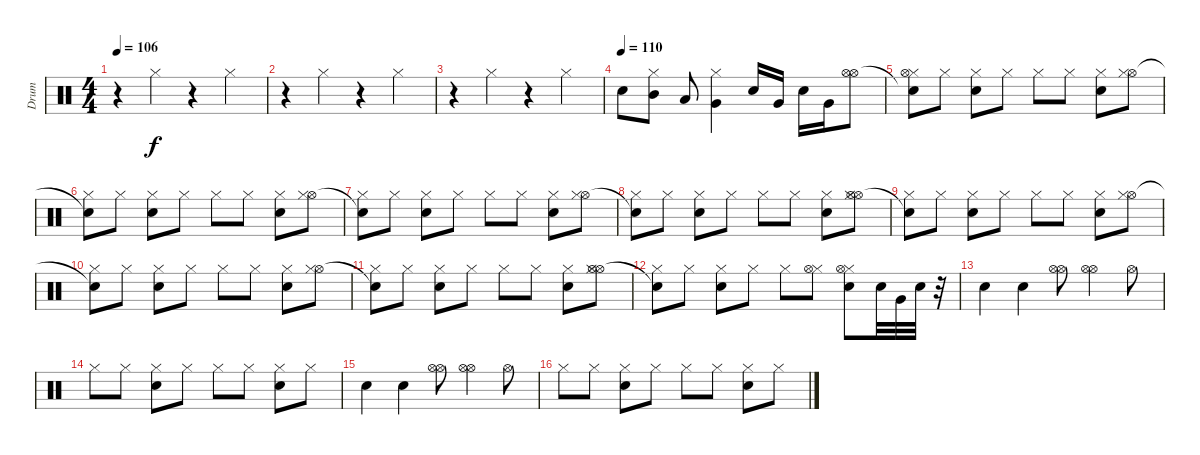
\track ("Drum" "Drum") {instrument percussion}
\staff {score}
\articulation defaults
\ts (4 4)
\tempo 106
\clef neutral
\ks c
r.4{dy f} "Hi-Hat (closed)".4 r.4 "Hi-Hat (closed)".4 |
r.4 "Hi-Hat (closed)".4 r.4 "Hi-Hat (closed)".4 |
r.4 "Hi-Hat (closed)".4 r.4 "Hi-Hat (closed)".4 |
\tempo (110)
"Electric Snare (hit)".8 ("Mid Tom (hit)" "Hi-Hat (closed)").8 "Low Tom (hit)".8 ("Very Low Tom (hit)" "Hi-Hat (closed)").4 "Electric Snare (hit)".16 "Very Low Tom (hit)".16 "Electric Snare (hit)".16 "Very Low Tom (hit)".16 ("Hi-Hat (open)" "Hi-Hat (open)").8 |
("Snare (hit)"{t} "Hi-Hat (closed)" "Hi-Hat (open)").8 "Hi-Hat (closed)".8 ("Electric Snare (hit)" "Hi-Hat (closed)").8 "Hi-Hat (closed)".8 "Hi-Hat (closed)".8 "Hi-Hat (closed)".8 ("Electric Snare (hit)" "Hi-Hat (closed)").8 ("Hi-Hat (open)" "Hi-Hat (closed)").8 |
("Snare (hit)"{t} "Hi-Hat (closed)").8 "Hi-Hat (closed)".8 ("Electric Snare (hit)" "Hi-Hat (closed)").8 "Hi-Hat (closed)".8 "Hi-Hat (closed)".8 "Hi-Hat (closed)".8 ("Electric Snare (hit)" "Hi-Hat (closed)").8 ("Hi-Hat (open)" "Hi-Hat (closed)").8 |
("Snare (hit)"{t} "Hi-Hat (closed)").8 "Hi-Hat (closed)".8 ("Electric Snare (hit)" "Hi-Hat (closed)").8 "Hi-Hat (closed)".8 "Hi-Hat (closed)".8 "Hi-Hat (closed)".8 ("Electric Snare (hit)" "Hi-Hat (closed)").8 ("Hi-Hat (open)" "Hi-Hat (closed)").8 |
("Snare (hit)"{t} "Hi-Hat (closed)").8 "Hi-Hat (closed)".8 ("Electric Snare (hit)" "Hi-Hat (closed)").8 "Hi-Hat (closed)".8 "Hi-Hat (closed)".8 "Hi-Hat (closed)".8 ("Electric Snare (hit)" "Hi-Hat (closed)").8 ("Hi-Hat (open)" "Hi-Hat (closed)" "Hi-Hat (open)").8 |
("Snare (hit)"{t} "Hi-Hat (closed)").8 "Hi-Hat (closed)".8 ("Electric Snare (hit)" "Hi-Hat (closed)").8 "Hi-Hat (closed)".8 "Hi-Hat (closed)".8 "Hi-Hat (closed)".8 ("Electric Snare (hit)" "Hi-Hat (closed)").8 ("Hi-Hat (open)" "Hi-Hat (closed)").8 |
("Snare (hit)"{t} "Hi-Hat (closed)").8 "Hi-Hat (closed)".8 ("Electric Snare (hit)" "Hi-Hat (closed)").8 "Hi-Hat (closed)".8 "Hi-Hat (closed)".8 "Hi-Hat (closed)".8 ("Electric Snare (hit)" "Hi-Hat (closed)").8 ("Hi-Hat (open)" "Hi-Hat (closed)").8 |
("Snare (hit)"{t} "Hi-Hat (closed)").8 "Hi-Hat (closed)".8 ("Electric Snare (hit)" "Hi-Hat (closed)").8 "Hi-Hat (closed)".8 "Hi-Hat (closed)".8 "Hi-Hat (closed)".8 ("Electric Snare (hit)" "Hi-Hat (closed)").8 ("Hi-Hat (open)" "Hi-Hat (closed)" "Hi-Hat (open)").8 |
("Snare (hit)"{t} "Hi-Hat (closed)").8 "Hi-Hat (closed)".8 ("Electric Snare (hit)" "Hi-Hat (closed)").8 "Hi-Hat (closed)".8 "Hi-Hat (closed)".8 ("Hi-Hat (closed)" "Hi-Hat (open)").8 ("Electric Snare (hit)" "Hi-Hat (closed)" "Hi-Hat (open)").8 "Electric Snare (hit)".32 "Very Low Tom (hit)".32 "Electric Snare (hit)".32 r.32 |
"Electric Snare (hit)".4 "Electric Snare (hit)".4 ("Hi-Hat (open)" "Hi-Hat (open)").8 ("Hi-Hat (open)" "Hi-Hat (open)").4 "Hi-Hat (open)".8 |
"Hi-Hat (closed)".8 "Hi-Hat (closed)".8 ("Electric Snare (hit)" "Hi-Hat (closed)").8 "Hi-Hat (closed)".8 "Hi-Hat (closed)".8 "Hi-Hat (closed)".8 ("Electric Snare (hit)" "Hi-Hat (closed)").8 "Hi-Hat (closed)".8 |
"Electric Snare (hit)".4 "Electric Snare (hit)".4 ("Hi-Hat (open)" "Hi-Hat (open)").8 ("Hi-Hat (open)" "Hi-Hat (open)").4 "Hi-Hat (open)".8 |
"Hi-Hat (closed)".8 "Hi-Hat (closed)".8 ("Electric Snare (hit)" "Hi-Hat (closed)").8 "Hi-Hat (closed)".8 "Hi-Hat (closed)".8 "Hi-Hat (closed)".8 ("Electric Snare (hit)" "Hi-Hat (closed)").8 "Hi-Hat (closed)".8
